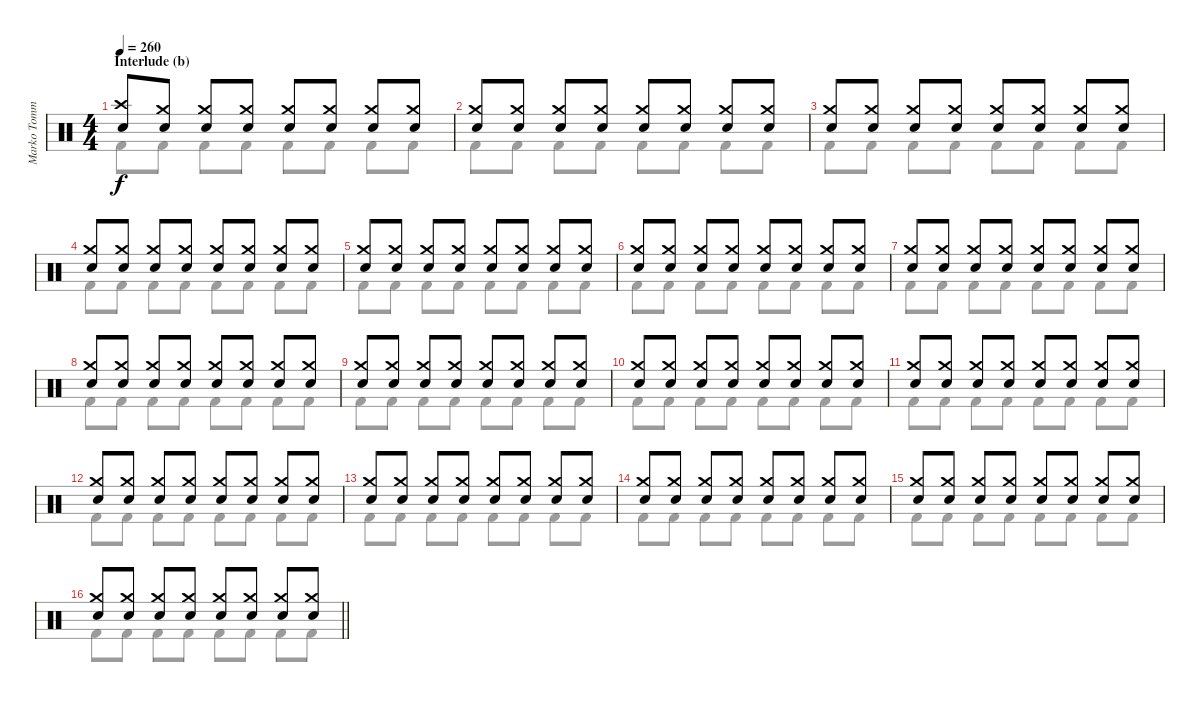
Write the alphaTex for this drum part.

\track ("Marko Tommila (drums)" "Marko Tomm") {instrument percussion}
\staff {score}
\articulation defaults
\voice
\ts (4 4)
\section ("" "Interlude (b)")
\tempo 260
\clef neutral
\ks aminor
("Electric Snare (hit)" "Crash high (hit)").8{dy f} ("Electric Snare (hit)" "Crash medium (hit)").8 ("Electric Snare (hit)" "Crash medium (hit)").8 ("Electric Snare (hit)" "Crash medium (hit)").8 ("Electric Snare (hit)" "Crash medium (hit)").8 ("Electric Snare (hit)" "Crash medium (hit)").8 ("Electric Snare (hit)" "Crash medium (hit)").8 ("Electric Snare (hit)" "Crash medium (hit)").8 |
("Electric Snare (hit)" "Crash medium (hit)").8 ("Electric Snare (hit)" "Crash medium (hit)").8 ("Electric Snare (hit)" "Crash medium (hit)").8 ("Electric Snare (hit)" "Crash medium (hit)").8 ("Electric Snare (hit)" "Crash medium (hit)").8 ("Electric Snare (hit)" "Crash medium (hit)").8 ("Electric Snare (hit)" "Crash medium (hit)").8 ("Electric Snare (hit)" "Crash medium (hit)").8 |
("Electric Snare (hit)" "Crash medium (hit)").8 ("Electric Snare (hit)" "Crash medium (hit)").8 ("Electric Snare (hit)" "Crash medium (hit)").8 ("Electric Snare (hit)" "Crash medium (hit)").8 ("Electric Snare (hit)" "Crash medium (hit)").8 ("Electric Snare (hit)" "Crash medium (hit)").8 ("Electric Snare (hit)" "Crash medium (hit)").8 ("Electric Snare (hit)" "Crash medium (hit)").8 |
("Electric Snare (hit)" "Crash medium (hit)").8 ("Electric Snare (hit)" "Crash medium (hit)").8 ("Electric Snare (hit)" "Crash medium (hit)").8 ("Electric Snare (hit)" "Crash medium (hit)").8 ("Electric Snare (hit)" "Crash medium (hit)").8 ("Electric Snare (hit)" "Crash medium (hit)").8 ("Electric Snare (hit)" "Crash medium (hit)").8 ("Electric Snare (hit)" "Crash medium (hit)").8 |
("Electric Snare (hit)" "Crash medium (hit)").8 ("Electric Snare (hit)" "Crash medium (hit)").8 ("Electric Snare (hit)" "Crash medium (hit)").8 ("Electric Snare (hit)" "Crash medium (hit)").8 ("Electric Snare (hit)" "Crash medium (hit)").8 ("Electric Snare (hit)" "Crash medium (hit)").8 ("Electric Snare (hit)" "Crash medium (hit)").8 ("Electric Snare (hit)" "Crash medium (hit)").8 |
("Electric Snare (hit)" "Crash medium (hit)").8 ("Electric Snare (hit)" "Crash medium (hit)").8 ("Electric Snare (hit)" "Crash medium (hit)").8 ("Electric Snare (hit)" "Crash medium (hit)").8 ("Electric Snare (hit)" "Crash medium (hit)").8 ("Electric Snare (hit)" "Crash medium (hit)").8 ("Electric Snare (hit)" "Crash medium (hit)").8 ("Electric Snare (hit)" "Crash medium (hit)").8 |
("Electric Snare (hit)" "Crash medium (hit)").8 ("Electric Snare (hit)" "Crash medium (hit)").8 ("Electric Snare (hit)" "Crash medium (hit)").8 ("Electric Snare (hit)" "Crash medium (hit)").8 ("Electric Snare (hit)" "Crash medium (hit)").8 ("Electric Snare (hit)" "Crash medium (hit)").8 ("Electric Snare (hit)" "Crash medium (hit)").8 ("Electric Snare (hit)" "Crash medium (hit)").8 |
("Electric Snare (hit)" "Crash medium (hit)").8 ("Electric Snare (hit)" "Crash medium (hit)").8 ("Electric Snare (hit)" "Crash medium (hit)").8 ("Electric Snare (hit)" "Crash medium (hit)").8 ("Electric Snare (hit)" "Crash medium (hit)").8 ("Electric Snare (hit)" "Crash medium (hit)").8 ("Electric Snare (hit)" "Crash medium (hit)").8 ("Electric Snare (hit)" "Crash medium (hit)").8 |
("Electric Snare (hit)" "Crash medium (hit)").8 ("Electric Snare (hit)" "Crash medium (hit)").8 ("Electric Snare (hit)" "Crash medium (hit)").8 ("Electric Snare (hit)" "Crash medium (hit)").8 ("Electric Snare (hit)" "Crash medium (hit)").8 ("Electric Snare (hit)" "Crash medium (hit)").8 ("Electric Snare (hit)" "Crash medium (hit)").8 ("Electric Snare (hit)" "Crash medium (hit)").8 |
("Electric Snare (hit)" "Crash medium (hit)").8 ("Electric Snare (hit)" "Crash medium (hit)").8 ("Electric Snare (hit)" "Crash medium (hit)").8 ("Electric Snare (hit)" "Crash medium (hit)").8 ("Electric Snare (hit)" "Crash medium (hit)").8 ("Electric Snare (hit)" "Crash medium (hit)").8 ("Electric Snare (hit)" "Crash medium (hit)").8 ("Electric Snare (hit)" "Crash medium (hit)").8 |
("Electric Snare (hit)" "Crash medium (hit)").8 ("Electric Snare (hit)" "Crash medium (hit)").8 ("Electric Snare (hit)" "Crash medium (hit)").8 ("Electric Snare (hit)" "Crash medium (hit)").8 ("Electric Snare (hit)" "Crash medium (hit)").8 ("Electric Snare (hit)" "Crash medium (hit)").8 ("Electric Snare (hit)" "Crash medium (hit)").8 ("Electric Snare (hit)" "Crash medium (hit)").8 |
("Electric Snare (hit)" "Crash medium (hit)").8 ("Electric Snare (hit)" "Crash medium (hit)").8 ("Electric Snare (hit)" "Crash medium (hit)").8 ("Electric Snare (hit)" "Crash medium (hit)").8 ("Electric Snare (hit)" "Crash medium (hit)").8 ("Electric Snare (hit)" "Crash medium (hit)").8 ("Electric Snare (hit)" "Crash medium (hit)").8 ("Electric Snare (hit)" "Crash medium (hit)").8 |
("Electric Snare (hit)" "Crash medium (hit)").8 ("Electric Snare (hit)" "Crash medium (hit)").8 ("Electric Snare (hit)" "Crash medium (hit)").8 ("Electric Snare (hit)" "Crash medium (hit)").8 ("Electric Snare (hit)" "Crash medium (hit)").8 ("Electric Snare (hit)" "Crash medium (hit)").8 ("Electric Snare (hit)" "Crash medium (hit)").8 ("Electric Snare (hit)" "Crash medium (hit)").8 |
("Electric Snare (hit)" "Crash medium (hit)").8 ("Electric Snare (hit)" "Crash medium (hit)").8 ("Electric Snare (hit)" "Crash medium (hit)").8 ("Electric Snare (hit)" "Crash medium (hit)").8 ("Electric Snare (hit)" "Crash medium (hit)").8 ("Electric Snare (hit)" "Crash medium (hit)").8 ("Electric Snare (hit)" "Crash medium (hit)").8 ("Electric Snare (hit)" "Crash medium (hit)").8 |
("Electric Snare (hit)" "Crash medium (hit)").8 ("Electric Snare (hit)" "Crash medium (hit)").8 ("Electric Snare (hit)" "Crash medium (hit)").8 ("Electric Snare (hit)" "Crash medium (hit)").8 ("Electric Snare (hit)" "Crash medium (hit)").8 ("Electric Snare (hit)" "Crash medium (hit)").8 ("Electric Snare (hit)" "Crash medium (hit)").8 ("Electric Snare (hit)" "Crash medium (hit)").8 |
\barLineRight lightlight
("Electric Snare (hit)" "Crash medium (hit)").8 ("Electric Snare (hit)" "Crash medium (hit)").8 ("Electric Snare (hit)" "Crash medium (hit)").8 ("Electric Snare (hit)" "Crash medium (hit)").8 ("Electric Snare (hit)" "Crash medium (hit)").8 ("Electric Snare (hit)" "Crash medium (hit)").8 ("Electric Snare (hit)" "Crash medium (hit)").8 ("Electric Snare (hit)" "Crash medium (hit)").8
\voice
\clef neutral
\ottava regular
\simile none
\ks aminor "Kick (hit) 2".8{dy f} "Kick (hit) 2".8 "Kick (hit) 2".8 "Kick (hit) 2".8 "Kick (hit) 2".8 "Kick (hit) 2".8 "Kick (hit) 2".8 "Kick (hit) 2".8
|
"Kick (hit) 2".8 "Kick (hit) 2".8 "Kick (hit) 2".8 "Kick (hit) 2".8 "Kick (hit) 2".8 "Kick (hit) 2".8 "Kick (hit) 2".8 "Kick (hit) 2".8 |
"Kick (hit) 2".8 "Kick (hit) 2".8 "Kick (hit) 2".8 "Kick (hit) 2".8 "Kick (hit) 2".8 "Kick (hit) 2".8 "Kick (hit) 2".8 "Kick (hit) 2".8 |
"Kick (hit) 2".8 "Kick (hit) 2".8 "Kick (hit) 2".8 "Kick (hit) 2".8 "Kick (hit) 2".8 "Kick (hit) 2".8 "Kick (hit) 2".8 "Kick (hit) 2".8 |
"Kick (hit) 2".8 "Kick (hit) 2".8 "Kick (hit) 2".8 "Kick (hit) 2".8 "Kick (hit) 2".8 "Kick (hit) 2".8 "Kick (hit) 2".8 "Kick (hit) 2".8 |
"Kick (hit) 2".8 "Kick (hit) 2".8 "Kick (hit) 2".8 "Kick (hit) 2".8 "Kick (hit) 2".8 "Kick (hit) 2".8 "Kick (hit) 2".8 "Kick (hit) 2".8 |
"Kick (hit) 2".8 "Kick (hit) 2".8 "Kick (hit) 2".8 "Kick (hit) 2".8 "Kick (hit) 2".8 "Kick (hit) 2".8 "Kick (hit) 2".8 "Kick (hit) 2".8 |
"Kick (hit) 2".8 "Kick (hit) 2".8 "Kick (hit) 2".8 "Kick (hit) 2".8 "Kick (hit) 2".8 "Kick (hit) 2".8 "Kick (hit) 2".8 "Kick (hit) 2".8 |
"Kick (hit) 2".8 "Kick (hit) 2".8 "Kick (hit) 2".8 "Kick (hit) 2".8 "Kick (hit) 2".8 "Kick (hit) 2".8 "Kick (hit) 2".8 "Kick (hit) 2".8 |
"Kick (hit) 2".8 "Kick (hit) 2".8 "Kick (hit) 2".8 "Kick (hit) 2".8 "Kick (hit) 2".8 "Kick (hit) 2".8 "Kick (hit) 2".8 "Kick (hit) 2".8 |
"Kick (hit) 2".8 "Kick (hit) 2".8 "Kick (hit) 2".8 "Kick (hit) 2".8 "Kick (hit) 2".8 "Kick (hit) 2".8 "Kick (hit) 2".8 "Kick (hit) 2".8 |
"Kick (hit) 2".8 "Kick (hit) 2".8 "Kick (hit) 2".8 "Kick (hit) 2".8 "Kick (hit) 2".8 "Kick (hit) 2".8 "Kick (hit) 2".8 "Kick (hit) 2".8 |
"Kick (hit) 2".8 "Kick (hit) 2".8 "Kick (hit) 2".8 "Kick (hit) 2".8 "Kick (hit) 2".8 "Kick (hit) 2".8 "Kick (hit) 2".8 "Kick (hit) 2".8 |
"Kick (hit) 2".8 "Kick (hit) 2".8 "Kick (hit) 2".8 "Kick (hit) 2".8 "Kick (hit) 2".8 "Kick (hit) 2".8 "Kick (hit) 2".8 "Kick (hit) 2".8 |
"Kick (hit) 2".8 "Kick (hit) 2".8 "Kick (hit) 2".8 "Kick (hit) 2".8 "Kick (hit) 2".8 "Kick (hit) 2".8 "Kick (hit) 2".8 "Kick (hit) 2".8 |
\barLineRight lightlight "Kick (hit) 2".8 "Kick (hit) 2".8 "Kick (hit) 2".8 "Kick (hit) 2".8 "Kick (hit) 2".8 "Kick (hit) 2".8 "Kick (hit) 2".8 "Kick (hit) 2".8
